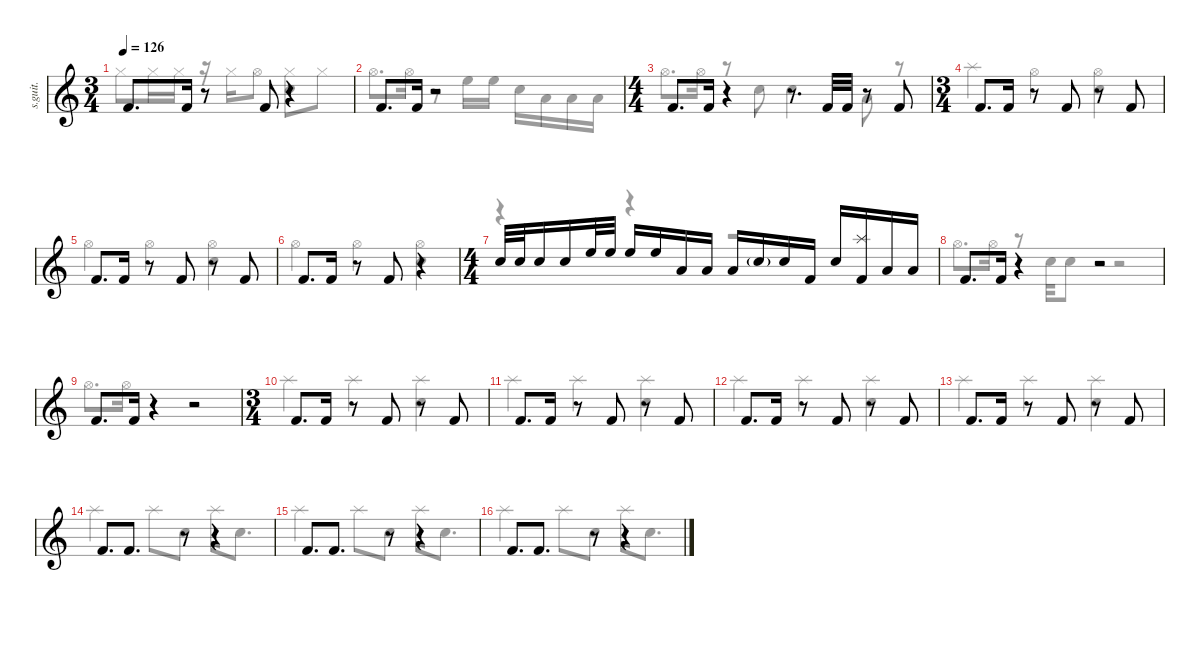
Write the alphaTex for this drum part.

\defaultSystemsLayout 4
\hideDynamics
\bracketExtendMode nobrackets
\track ("Percussion" "s.guit.") {instrument percussion}
\staff {score}
\articulation defaults
\voice
\ts (3 4)
\tempo 126
\clef g2
\ks c "Kick (hit) 2".8{d lyrics (0 "") lyrics (1 "") lyrics (2 "") lyrics (3 "") lyrics (4 "") dy mf} "Kick (hit) 2".16{lyrics (0 "") lyrics (1 "") lyrics (2 "") lyrics (3 "") lyrics (4 "")}
r.8 "Kick (hit) 2".8{lyrics (0 "") lyrics (1 "") lyrics (2 "") lyrics (3 "") lyrics (4 "")} r.4 |
"Kick (hit) 2".8{d lyrics (0 "") lyrics (1 "") lyrics (2 "") lyrics (3 "") lyrics (4 "")} "Kick (hit) 2".16{lyrics (0 "") lyrics (1 "") lyrics (2 "") lyrics (3 "") lyrics (4 "")} r.2 |
\ts (4 4)
\beaming (8 2 2 2 2)
"Kick (hit) 2".8{d lyrics (0 "") lyrics (1 "") lyrics (2 "") lyrics (3 "") lyrics (4 "")} "Kick (hit) 2".16{lyrics (0 "") lyrics (1 "") lyrics (2 "") lyrics (3 "") lyrics (4 "")} r.4 r.8{d} "Kick (hit) 2".32{lyrics (0 "") lyrics (1 "") lyrics (2 "") lyrics (3 "") lyrics (4 "")} "Kick (hit) 2".32{lyrics (0 "") lyrics (1 "") lyrics (2 "") lyrics (3 "") lyrics (4 "")} r.8 "Kick (hit) 2".8{lyrics (0 "") lyrics (1 "") lyrics (2 "") lyrics (3 "") lyrics (4 "")} |
\ts (3 4)
\beaming (8 2 2 2 2)
"Kick (hit) 2".8{d lyrics (0 "") lyrics (1 "") lyrics (2 "") lyrics (3 "") lyrics (4 "")} "Kick (hit) 2".16{lyrics (0 "") lyrics (1 "") lyrics (2 "") lyrics (3 "") lyrics (4 "")} r.8 "Kick (hit) 2".8{lyrics (0 "") lyrics (1 "") lyrics (2 "") lyrics (3 "") lyrics (4 "")} r.8 "Kick (hit) 2".8{lyrics (0 "") lyrics (1 "") lyrics (2 "") lyrics (3 "") lyrics (4 "")} |
"Kick (hit) 2".8{d lyrics (0 "") lyrics (1 "") lyrics (2 "") lyrics (3 "") lyrics (4 "")} "Kick (hit) 2".16{lyrics (0 "") lyrics (1 "") lyrics (2 "") lyrics (3 "") lyrics (4 "")} r.8 "Kick (hit) 2".8{lyrics (0 "") lyrics (1 "") lyrics (2 "") lyrics (3 "") lyrics (4 "")} r.8 "Kick (hit) 2".8{lyrics (0 "") lyrics (1 "") lyrics (2 "") lyrics (3 "") lyrics (4 "")} |
"Kick (hit) 2".8{d lyrics (0 "") lyrics (1 "") lyrics (2 "") lyrics (3 "") lyrics (4 "")} "Kick (hit) 2".16{lyrics (0 "") lyrics (1 "") lyrics (2 "") lyrics (3 "") lyrics (4 "")} r.8 "Kick (hit) 2".8{lyrics (0 "") lyrics (1 "") lyrics (2 "") lyrics (3 "") lyrics (4 "")} r.4 |
\ts (4 4)
\beaming (8 2 2 2 2)
"Snare (hit) 2".32{lyrics (0 "") lyrics (1 "") lyrics (2 "") lyrics (3 "") lyrics (4 "")} "Snare (hit) 2".32{lyrics (0 "") lyrics (1 "") lyrics (2 "") lyrics (3 "") lyrics (4 "")} "Snare (hit) 2".16{lyrics (0 "") lyrics (1 "") lyrics (2 "") lyrics (3 "") lyrics (4 "")} "Snare (hit) 2".16{lyrics (0 "") lyrics (1 "") lyrics (2 "") lyrics (3 "") lyrics (4 "")} "High Floor Tom (hit)".32{lyrics (0 "") lyrics (1 "") lyrics (2 "") lyrics (3 "") lyrics (4 "")} "High Floor Tom (hit)".32{lyrics (0 "") lyrics (1 "") lyrics (2 "") lyrics (3 "") lyrics (4 "")} "High Floor Tom (hit)".16{lyrics (0 "") lyrics (1 "") lyrics (2 "") lyrics (3 "") lyrics (4 "")} "High Floor Tom (hit)".16{lyrics (0 "") lyrics (1 "") lyrics (2 "") lyrics (3 "") lyrics (4 "")} "Low Tom (hit)".16{lyrics (0 "") lyrics (1 "") lyrics (2 "") lyrics (3 "") lyrics (4 "")} "Low Tom (hit)".16{lyrics (0 "") lyrics (1 "") lyrics (2 "") lyrics (3 "") lyrics (4 "")} "Low Tom (hit)".16{lyrics (0 "") lyrics (1 "") lyrics (2 "") lyrics (3 "") lyrics (4 "")} "Snare (hit) 2"{g}.16{lyrics (0 "") lyrics (1 "") lyrics (2 "") lyrics (3 "") lyrics (4 "")} "Snare (hit) 2".16{lyrics (0 "") lyrics (1 "") lyrics (2 "") lyrics (3 "") lyrics (4 "")} "Kick (hit) 2".16{lyrics (0 "") lyrics (1 "") lyrics (2 "") lyrics (3 "") lyrics (4 "")} "Snare (hit) 2".16{lyrics (0 "") lyrics (1 "") lyrics (2 "") lyrics (3 "") lyrics (4 "")} ("Splash (hit)" "Kick (hit) 2").16{lyrics (0 "") lyrics (1 "") lyrics (2 "") lyrics (3 "") lyrics (4 "")} "Low Tom (hit)".16{lyrics (0 "") lyrics (1 "") lyrics (2 "") lyrics (3 "") lyrics (4 "")} "Low Tom (hit)".16{lyrics (0 "") lyrics (1 "") lyrics (2 "") lyrics (3 "") lyrics (4 "")} |
"Kick (hit) 2".8{d lyrics (0 "") lyrics (1 "") lyrics (2 "") lyrics (3 "") lyrics (4 "")} "Kick (hit) 2".16{lyrics (0 "") lyrics (1 "") lyrics (2 "") lyrics (3 "") lyrics (4 "")} r.4 r.2 |
"Kick (hit) 2".8{d lyrics (0 "") lyrics (1 "") lyrics (2 "") lyrics (3 "") lyrics (4 "")} "Kick (hit) 2".16{lyrics (0 "") lyrics (1 "") lyrics (2 "") lyrics (3 "") lyrics (4 "")} r.4 r.2 |
\ts (3 4)
\beaming (8 2 2 2 2)
"Kick (hit) 2".8{d lyrics (0 "") lyrics (1 "") lyrics (2 "") lyrics (3 "") lyrics (4 "")} "Kick (hit) 2".16{lyrics (0 "") lyrics (1 "") lyrics (2 "") lyrics (3 "") lyrics (4 "")} r.8 "Kick (hit) 2".8{lyrics (0 "") lyrics (1 "") lyrics (2 "") lyrics (3 "") lyrics (4 "")} r.8 "Kick (hit) 2".8{lyrics (0 "") lyrics (1 "") lyrics (2 "") lyrics (3 "") lyrics (4 "")} |
"Kick (hit) 2".8{d lyrics (0 "") lyrics (1 "") lyrics (2 "") lyrics (3 "") lyrics (4 "")} "Kick (hit) 2".16{lyrics (0 "") lyrics (1 "") lyrics (2 "") lyrics (3 "") lyrics (4 "")} r.8 "Kick (hit) 2".8{lyrics (0 "") lyrics (1 "") lyrics (2 "") lyrics (3 "") lyrics (4 "")} r.8 "Kick (hit) 2".8{lyrics (0 "") lyrics (1 "") lyrics (2 "") lyrics (3 "") lyrics (4 "")} |
"Kick (hit) 2".8{d lyrics (0 "") lyrics (1 "") lyrics (2 "") lyrics (3 "") lyrics (4 "")} "Kick (hit) 2".16{lyrics (0 "") lyrics (1 "") lyrics (2 "") lyrics (3 "") lyrics (4 "")} r.8 "Kick (hit) 2".8{lyrics (0 "") lyrics (1 "") lyrics (2 "") lyrics (3 "") lyrics (4 "")} r.8 "Kick (hit) 2".8{lyrics (0 "") lyrics (1 "") lyrics (2 "") lyrics (3 "") lyrics (4 "")} |
"Kick (hit) 2".8{d lyrics (0 "") lyrics (1 "") lyrics (2 "") lyrics (3 "") lyrics (4 "")} "Kick (hit) 2".16{lyrics (0 "") lyrics (1 "") lyrics (2 "") lyrics (3 "") lyrics (4 "")} r.8 "Kick (hit) 2".8{lyrics (0 "") lyrics (1 "") lyrics (2 "") lyrics (3 "") lyrics (4 "")} r.8 "Kick (hit) 2".8{lyrics (0 "") lyrics (1 "") lyrics (2 "") lyrics (3 "") lyrics (4 "")} |
"Kick (hit) 2".8{d lyrics (0 "") lyrics (1 "") lyrics (2 "") lyrics (3 "") lyrics (4 "")} "Kick (hit) 2".8{d lyrics (0 "") lyrics (1 "") lyrics (2 "") lyrics (3 "") lyrics (4 "")} r.8 r.4 |
"Kick (hit) 2".8{d lyrics (0 "") lyrics (1 "") lyrics (2 "") lyrics (3 "") lyrics (4 "")} "Kick (hit) 2".8{d lyrics (0 "") lyrics (1 "") lyrics (2 "") lyrics (3 "") lyrics (4 "")} r.8 r.4 |
"Kick (hit) 2".8{d lyrics (0 "") lyrics (1 "") lyrics (2 "") lyrics (3 "") lyrics (4 "")} "Kick (hit) 2".8{d lyrics (0 "") lyrics (1 "") lyrics (2 "") lyrics (3 "") lyrics (4 "")} r.8 r.4
\voice
\clef g2
\ottava regular
\simile none
\ks c "Hi-Hat (closed)".8{lyrics (0 "") lyrics (1 "") lyrics (2 "") lyrics (3 "") lyrics (4 "") dy mf} "Hi-Hat (closed)".16{lyrics (0 "") lyrics (1 "") lyrics (2 "") lyrics (3 "") lyrics (4 "")} "Hi-Hat (closed)".16{lyrics (0 "") lyrics (1 "") lyrics (2 "") lyrics (3 "") lyrics (4 "")}
r.16 "Hi-Hat (closed)".16{lyrics (0 "") lyrics (1 "") lyrics (2 "") lyrics (3 "") lyrics (4 "")} "Hi-Hat (open)".8{lyrics (0 "") lyrics (1 "") lyrics (2 "") lyrics (3 "") lyrics (4 "")} ("Hi-Hat (closed)" "Snare (hit) 2").8{lyrics (0 "") lyrics (1 "") lyrics (2 "") lyrics (3 "") lyrics (4 "")} "Hi-Hat (closed)".8{lyrics (0 "") lyrics (1 "") lyrics (2 "") lyrics (3 "") lyrics (4 "")} |
"Hi-Hat (open)".8{d lyrics (0 "") lyrics (1 "") lyrics (2 "") lyrics (3 "") lyrics (4 "")} "Hi-Hat (open)".16{lyrics (0 "") lyrics (1 "") lyrics (2 "") lyrics (3 "") lyrics (4 "")} r.8 "High Floor Tom (hit)".16{lyrics (0 "") lyrics (1 "") lyrics (2 "") lyrics (3 "") lyrics (4 "")} "High Floor Tom (hit)".16{lyrics (0 "") lyrics (1 "") lyrics (2 "") lyrics (3 "") lyrics (4 "")} "Snare (hit) 2".16{lyrics (0 "") lyrics (1 "") lyrics (2 "") lyrics (3 "") lyrics (4 "")} "Low Tom (hit)".16{lyrics (0 "") lyrics (1 "") lyrics (2 "") lyrics (3 "") lyrics (4 "")} "Low Tom (hit)".16{lyrics (0 "") lyrics (1 "") lyrics (2 "") lyrics (3 "") lyrics (4 "")} "Low Tom (hit)".16{lyrics (0 "") lyrics (1 "") lyrics (2 "") lyrics (3 "") lyrics (4 "")} |
"Hi-Hat (open)".8{d lyrics (0 "") lyrics (1 "") lyrics (2 "") lyrics (3 "") lyrics (4 "")} "Hi-Hat (open)".16{lyrics (0 "") lyrics (1 "") lyrics (2 "") lyrics (3 "") lyrics (4 "")} r.8 "Snare (hit) 2".8{lyrics (0 "") lyrics (1 "") lyrics (2 "") lyrics (3 "") lyrics (4 "")} "Snare (hit) 2".4{lyrics (0 "") lyrics (1 "") lyrics (2 "") lyrics (3 "") lyrics (4 "")} "Low Tom (hit)".8{lyrics (0 "") lyrics (1 "") lyrics (2 "") lyrics (3 "") lyrics (4 "")} r.8 |
"Splash (hit)".4{lyrics (0 "") lyrics (1 "") lyrics (2 "") lyrics (3 "") lyrics (4 "")} "Hi-Hat (open)".4{lyrics (0 "") lyrics (1 "") lyrics (2 "") lyrics (3 "") lyrics (4 "")} ("Hi-Hat (open)" "Snare (hit) 2").4{lyrics (0 "") lyrics (1 "") lyrics (2 "") lyrics (3 "") lyrics (4 "")} |
"Hi-Hat (open)".4{lyrics (0 "") lyrics (1 "") lyrics (2 "") lyrics (3 "") lyrics (4 "")} "Hi-Hat (open)".4{lyrics (0 "") lyrics (1 "") lyrics (2 "") lyrics (3 "") lyrics (4 "")} ("Hi-Hat (open)" "Snare (hit) 2").4{lyrics (0 "") lyrics (1 "") lyrics (2 "") lyrics (3 "") lyrics (4 "")} |
"Hi-Hat (open)".4{lyrics (0 "") lyrics (1 "") lyrics (2 "") lyrics (3 "") lyrics (4 "")} "Hi-Hat (open)".4{lyrics (0 "") lyrics (1 "") lyrics (2 "") lyrics (3 "") lyrics (4 "")} ("Hi-Hat (open)" "Snare (hit) 2").4{lyrics (0 "") lyrics (1 "") lyrics (2 "") lyrics (3 "") lyrics (4 "")} |
r.4 r.4 r.2 |
"Hi-Hat (open)".8{d lyrics (0 "") lyrics (1 "") lyrics (2 "") lyrics (3 "") lyrics (4 "")} "Hi-Hat (open)".16{lyrics (0 "") lyrics (1 "") lyrics (2 "") lyrics (3 "") lyrics (4 "")} r.8 "Snare (hit) 2".32{lyrics (0 "") lyrics (1 "") lyrics (2 "") lyrics (3 "") lyrics (4 "")} "Snare (hit) 2".8{lyrics (0 "") lyrics (1 "") lyrics (2 "") lyrics (3 "") lyrics (4 "")} r.2 |
"Hi-Hat (open)".8{d lyrics (0 "") lyrics (1 "") lyrics (2 "") lyrics (3 "") lyrics (4 "")} "Hi-Hat (open)".16{lyrics (0 "") lyrics (1 "") lyrics (2 "") lyrics (3 "") lyrics (4 "")} r.4 r.2 |
"Splash (hit)".4{lyrics (0 "") lyrics (1 "") lyrics (2 "") lyrics (3 "") lyrics (4 "")} "Splash (hit)".4{lyrics (0 "") lyrics (1 "") lyrics (2 "") lyrics (3 "") lyrics (4 "")} ("Splash (hit)" "Snare (hit) 2").4{lyrics (0 "") lyrics (1 "") lyrics (2 "") lyrics (3 "") lyrics (4 "")} |
"Splash (hit)".4{lyrics (0 "") lyrics (1 "") lyrics (2 "") lyrics (3 "") lyrics (4 "")} "Splash (hit)".4{lyrics (0 "") lyrics (1 "") lyrics (2 "") lyrics (3 "") lyrics (4 "")} ("Splash (hit)" "Snare (hit) 2").4{lyrics (0 "") lyrics (1 "") lyrics (2 "") lyrics (3 "") lyrics (4 "")} |
"Splash (hit)".4{lyrics (0 "") lyrics (1 "") lyrics (2 "") lyrics (3 "") lyrics (4 "")} "Splash (hit)".4{lyrics (0 "") lyrics (1 "") lyrics (2 "") lyrics (3 "") lyrics (4 "")} ("Splash (hit)" "Snare (hit) 2").4{lyrics (0 "") lyrics (1 "") lyrics (2 "") lyrics (3 "") lyrics (4 "")} |
"Splash (hit)".4{lyrics (0 "") lyrics (1 "") lyrics (2 "") lyrics (3 "") lyrics (4 "")} "Splash (hit)".4{lyrics (0 "") lyrics (1 "") lyrics (2 "") lyrics (3 "") lyrics (4 "")} ("Splash (hit)" "Snare (hit) 2").4{lyrics (0 "") lyrics (1 "") lyrics (2 "") lyrics (3 "") lyrics (4 "")} |
"Splash (hit)".4{lyrics (0 "") lyrics (1 "") lyrics (2 "") lyrics (3 "") lyrics (4 "")} "Splash (hit)".8{lyrics (0 "") lyrics (1 "") lyrics (2 "") lyrics (3 "") lyrics (4 "")} "Snare (hit) 2".8{lyrics (0 "") lyrics (1 "") lyrics (2 "") lyrics (3 "") lyrics (4 "")} "Splash (hit)".16{lyrics (0 "") lyrics (1 "") lyrics (2 "") lyrics (3 "") lyrics (4 "")} "Snare (hit) 2".8{d lyrics (0 "") lyrics (1 "") lyrics (2 "") lyrics (3 "") lyrics (4 "")} |
"Splash (hit)".4{lyrics (0 "") lyrics (1 "") lyrics (2 "") lyrics (3 "") lyrics (4 "")} "Splash (hit)".8{lyrics (0 "") lyrics (1 "") lyrics (2 "") lyrics (3 "") lyrics (4 "")} "Snare (hit) 2".8{lyrics (0 "") lyrics (1 "") lyrics (2 "") lyrics (3 "") lyrics (4 "")} "Splash (hit)".16{lyrics (0 "") lyrics (1 "") lyrics (2 "") lyrics (3 "") lyrics (4 "")} "Snare (hit) 2".8{d lyrics (0 "") lyrics (1 "") lyrics (2 "") lyrics (3 "") lyrics (4 "")} |
"Splash (hit)".4{lyrics (0 "") lyrics (1 "") lyrics (2 "") lyrics (3 "") lyrics (4 "")} "Splash (hit)".8{lyrics (0 "") lyrics (1 "") lyrics (2 "") lyrics (3 "") lyrics (4 "")} "Snare (hit) 2".8{lyrics (0 "") lyrics (1 "") lyrics (2 "") lyrics (3 "") lyrics (4 "")} "Splash (hit)".16{lyrics (0 "") lyrics (1 "") lyrics (2 "") lyrics (3 "") lyrics (4 "")} "Snare (hit) 2".8{d lyrics (0 "") lyrics (1 "") lyrics (2 "") lyrics (3 "") lyrics (4 "")}
